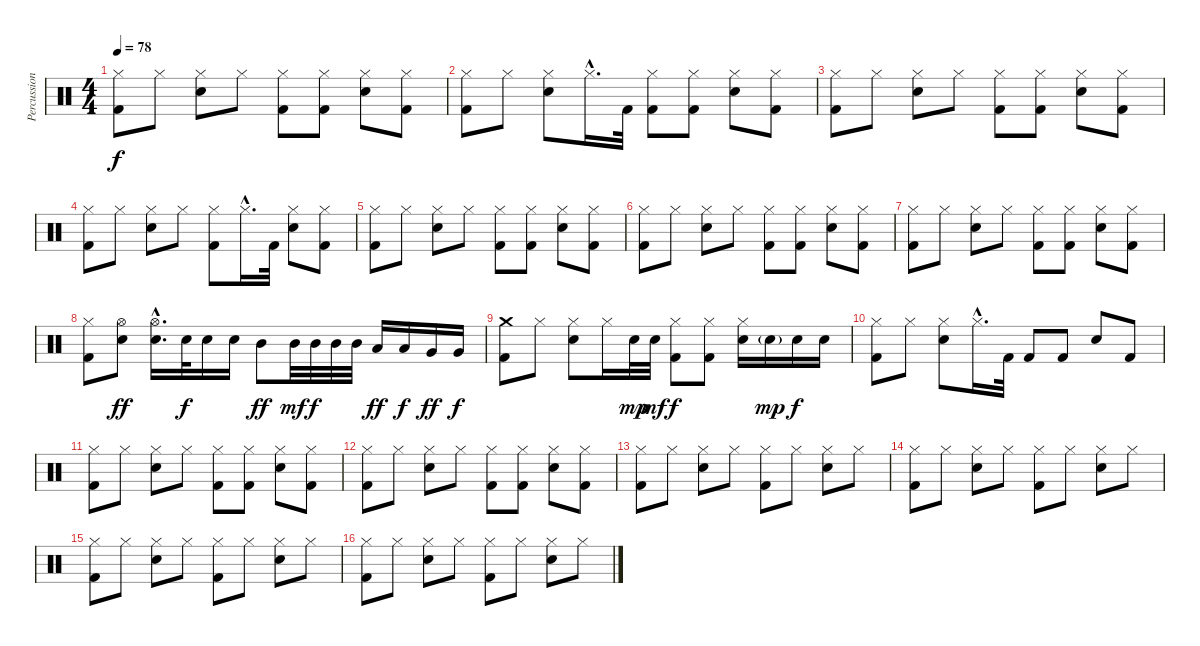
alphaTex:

\track ("Percussions" "Percussion") {instrument percussion}
\staff {score}
\articulation defaults
\ts (4 4)
\tempo 78
\clef neutral
\ks c
("Hi-Hat (closed)" "Kick (hit) 2").8{dy f} "Hi-Hat (closed)".8 ("Hi-Hat (closed)" "Electric Snare (hit)").8 "Hi-Hat (closed)".8 ("Hi-Hat (closed)" "Kick (hit) 2").8 ("Hi-Hat (closed)" "Kick (hit) 2").8 ("Hi-Hat (closed)" "Electric Snare (hit)").8 ("Hi-Hat (closed)" "Kick (hit) 2").8 |
("Hi-Hat (closed)" "Kick (hit) 2").8 "Hi-Hat (closed)".8 ("Hi-Hat (closed)" "Electric Snare (hit)").8 "Hi-Hat (closed)"{hac}.16{d} "Kick (hit) 2".32 ("Hi-Hat (closed)" "Kick (hit) 2").8 ("Hi-Hat (closed)" "Kick (hit) 2").8 ("Hi-Hat (closed)" "Electric Snare (hit)").8 ("Hi-Hat (closed)" "Kick (hit) 2").8 |
("Hi-Hat (closed)" "Kick (hit) 2").8 "Hi-Hat (closed)".8 ("Hi-Hat (closed)" "Electric Snare (hit)").8 "Hi-Hat (closed)".8 ("Hi-Hat (closed)" "Kick (hit) 2").8 ("Hi-Hat (closed)" "Kick (hit) 2").8 ("Hi-Hat (closed)" "Electric Snare (hit)").8 ("Hi-Hat (closed)" "Kick (hit) 2").8 |
("Hi-Hat (closed)" "Kick (hit) 2").8 "Hi-Hat (closed)".8 ("Hi-Hat (closed)" "Electric Snare (hit)").8 "Hi-Hat (closed)".8 ("Hi-Hat (closed)" "Kick (hit) 2").8 "Hi-Hat (closed)"{hac}.16{d} "Kick (hit) 2".32 ("Hi-Hat (closed)" "Electric Snare (hit)").8 ("Hi-Hat (closed)" "Kick (hit) 2").8 |
("Hi-Hat (closed)" "Kick (hit) 2").8 "Hi-Hat (closed)".8 ("Hi-Hat (closed)" "Electric Snare (hit)").8 "Hi-Hat (closed)".8 ("Hi-Hat (closed)" "Kick (hit) 2").8 ("Hi-Hat (closed)" "Kick (hit) 2").8 ("Hi-Hat (closed)" "Electric Snare (hit)").8 ("Hi-Hat (closed)" "Kick (hit) 2").8 |
("Hi-Hat (closed)" "Kick (hit) 2").8 "Hi-Hat (closed)".8 ("Hi-Hat (closed)" "Electric Snare (hit)").8 "Hi-Hat (closed)".8 ("Hi-Hat (closed)" "Kick (hit) 2").8 ("Hi-Hat (closed)" "Kick (hit) 2").8 ("Hi-Hat (closed)" "Electric Snare (hit)").8 ("Hi-Hat (closed)" "Kick (hit) 2").8 |
("Hi-Hat (closed)" "Kick (hit) 2").8 "Hi-Hat (closed)".8 ("Hi-Hat (closed)" "Electric Snare (hit)").8 "Hi-Hat (closed)".8 ("Hi-Hat (closed)" "Kick (hit) 2").8 ("Hi-Hat (closed)" "Kick (hit) 2").8 ("Hi-Hat (closed)" "Electric Snare (hit)").8 ("Hi-Hat (closed)" "Kick (hit) 2").8 |
("Hi-Hat (closed)" "Kick (hit) 2").8 ("Hi-Hat (open)" "Electric Snare (hit)").8{dy ff} ("Hi-Hat (open)"{hac} "Electric Snare (hit)"{hac}).16{d} "Electric Snare (hit)".32{dy f} "Electric Snare (hit)".16 "Electric Snare (hit)".16 "Mid Tom (hit)".8{dy ff} "Mid Tom (hit)".32{dy mf} "Mid Tom (hit)".32{dy f} "Mid Tom (hit)".32 "Mid Tom (hit)".32 "Low Tom (hit)".16{dy ff} "Low Tom (hit)".16{dy f} "Very Low Tom (hit)".16{dy ff} "Very Low Tom (hit)".16{dy f} |
("Crash medium (hit)" "Kick (hit) 2").8 "Hi-Hat (closed)".8 ("Hi-Hat (closed)" "Electric Snare (hit)").8 "Hi-Hat (closed)".16 "Electric Snare (hit)".32{dy mp} "Electric Snare (hit)".32{dy mf} ("Hi-Hat (closed)" "Kick (hit) 2").8{dy f} ("Hi-Hat (closed)" "Kick (hit) 2").8 ("Hi-Hat (closed)" "Electric Snare (hit)").16 "Electric Snare (hit)"{g}.16{dy mp} "Electric Snare (hit)".16{dy f} "Electric Snare (hit)".16 |
("Hi-Hat (closed)" "Kick (hit) 2").8 "Hi-Hat (closed)".8 ("Hi-Hat (closed)" "Electric Snare (hit)").8 "Hi-Hat (closed)"{hac}.16{d} "Kick (hit) 2".32 "Kick (hit) 2".8 "Kick (hit) 2".8 "Electric Snare (hit)".8 "Kick (hit) 2".8 |
("Hi-Hat (closed)" "Kick (hit) 2").8 "Hi-Hat (closed)".8 ("Hi-Hat (closed)" "Electric Snare (hit)").8 "Hi-Hat (closed)".8 ("Hi-Hat (closed)" "Kick (hit) 2").8 ("Hi-Hat (closed)" "Kick (hit) 2").8 ("Hi-Hat (closed)" "Electric Snare (hit)").8 ("Hi-Hat (closed)" "Kick (hit) 2").8 |
("Hi-Hat (closed)" "Kick (hit) 2").8 "Hi-Hat (closed)".8 ("Hi-Hat (closed)" "Electric Snare (hit)").8 "Hi-Hat (closed)".8 ("Hi-Hat (closed)" "Kick (hit) 2").8 ("Hi-Hat (closed)" "Kick (hit) 2").8 ("Hi-Hat (closed)" "Electric Snare (hit)").8 ("Hi-Hat (closed)" "Kick (hit) 2").8 |
("Hi-Hat (closed)" "Kick (hit) 2").8 "Hi-Hat (closed)".8 ("Hi-Hat (closed)" "Electric Snare (hit)").8 "Hi-Hat (closed)".8 ("Hi-Hat (closed)" "Kick (hit) 2").8 "Hi-Hat (closed)".8 ("Hi-Hat (closed)" "Electric Snare (hit)").8 "Hi-Hat (closed)".8 |
("Hi-Hat (closed)" "Kick (hit) 2").8 "Hi-Hat (closed)".8 ("Hi-Hat (closed)" "Electric Snare (hit)").8 "Hi-Hat (closed)".8 ("Hi-Hat (closed)" "Kick (hit) 2").8 "Hi-Hat (closed)".8 ("Hi-Hat (closed)" "Electric Snare (hit)").8 "Hi-Hat (closed)".8 |
("Hi-Hat (closed)" "Kick (hit) 2").8 "Hi-Hat (closed)".8 ("Hi-Hat (closed)" "Electric Snare (hit)").8 "Hi-Hat (closed)".8 ("Hi-Hat (closed)" "Kick (hit) 2").8 "Hi-Hat (closed)".8 ("Hi-Hat (closed)" "Electric Snare (hit)").8 "Hi-Hat (closed)".8 |
("Hi-Hat (closed)" "Kick (hit) 2").8 "Hi-Hat (closed)".8 ("Hi-Hat (closed)" "Electric Snare (hit)").8 "Hi-Hat (closed)".8 ("Hi-Hat (closed)" "Kick (hit) 2").8 "Hi-Hat (closed)".8 ("Hi-Hat (closed)" "Electric Snare (hit)").8 "Hi-Hat (closed)".8
